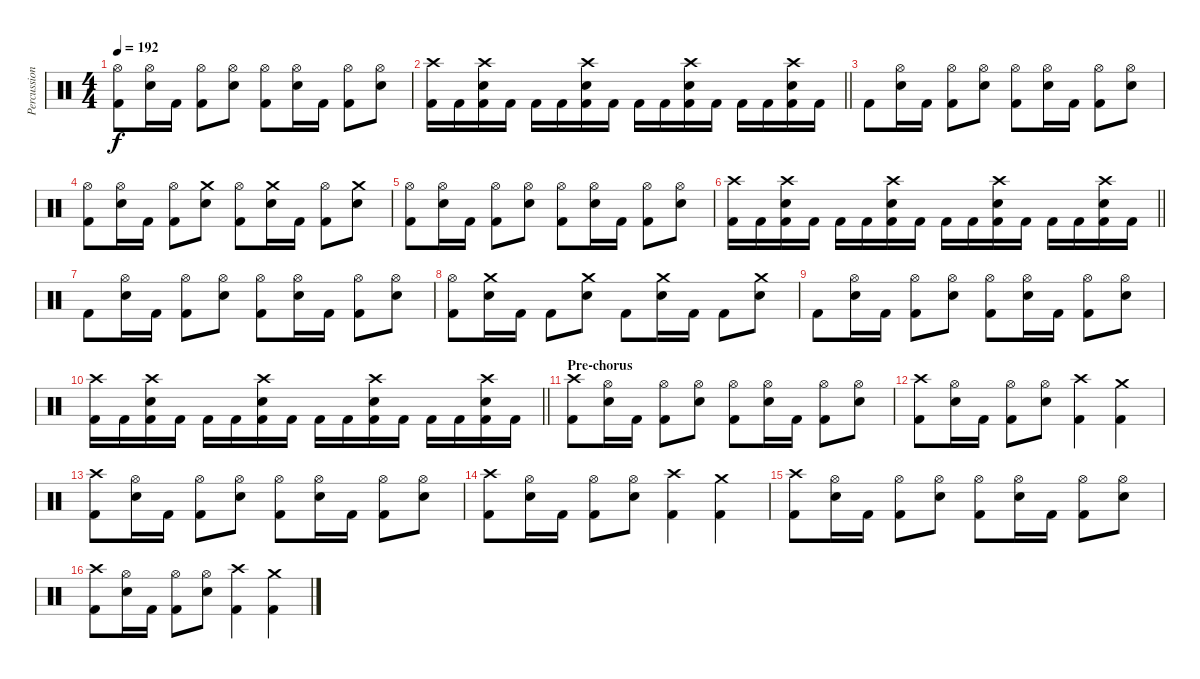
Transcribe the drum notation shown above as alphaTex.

\track ("Percussion" "Percussion") {instrument percussion}
\staff {score}
\articulation defaults
\ts (4 4)
\tempo 192
\clef neutral
\ks c
("Hi-Hat (open)" "Kick (hit) 2").8{dy f} ("Hi-Hat (open)" "Electric Snare (hit)").16 "Kick (hit) 2".16 ("Hi-Hat (open)" "Kick (hit) 2").8 ("Hi-Hat (open)" "Electric Snare (hit)").8 ("Hi-Hat (open)" "Kick (hit) 2").8 ("Hi-Hat (open)" "Electric Snare (hit)").16 "Kick (hit) 2".16 ("Hi-Hat (open)" "Kick (hit) 2").8 ("Hi-Hat (open)" "Electric Snare (hit)").8 |
\barLineRight lightlight
("Crash high (hit)" "Kick (hit) 2").16 "Kick (hit) 2".16 ("Crash high (hit)" "Electric Snare (hit)" "Kick (hit) 2").16 "Kick (hit) 2".16 "Kick (hit) 2".16 "Kick (hit) 2".16 ("Crash high (hit)" "Electric Snare (hit)" "Kick (hit) 2").16 "Kick (hit) 2".16 "Kick (hit) 2".16 "Kick (hit) 2".16 ("Crash high (hit)" "Electric Snare (hit)" "Kick (hit) 2").16 "Kick (hit) 2".16 "Kick (hit) 2".16 "Kick (hit) 2".16 ("Crash high (hit)" "Electric Snare (hit)" "Kick (hit) 2").16 "Kick (hit) 2".16 |
"Kick (hit) 2".8 ("Hi-Hat (open)" "Electric Snare (hit)").16 "Kick (hit) 2".16 ("Hi-Hat (open)" "Kick (hit) 2").8 ("Hi-Hat (open)" "Electric Snare (hit)").8 ("Hi-Hat (open)" "Kick (hit) 2").8 ("Hi-Hat (open)" "Electric Snare (hit)").16 "Kick (hit) 2".16 ("Hi-Hat (open)" "Kick (hit) 2").8 ("Hi-Hat (open)" "Electric Snare (hit)").8 |
("Hi-Hat (open)" "Kick (hit) 2").8 ("Hi-Hat (open)" "Electric Snare (hit)").16 "Kick (hit) 2".16 ("Hi-Hat (open)" "Kick (hit) 2").8 ("Crash medium (hit)" "Electric Snare (hit)").8 ("Hi-Hat (open)" "Kick (hit) 2").8 ("Crash medium (hit)" "Electric Snare (hit)").16 "Kick (hit) 2".16 ("Hi-Hat (open)" "Kick (hit) 2").8 ("Crash medium (hit)" "Electric Snare (hit)").8 |
("Hi-Hat (open)" "Kick (hit) 2").8 ("Hi-Hat (open)" "Electric Snare (hit)").16 "Kick (hit) 2".16 ("Hi-Hat (open)" "Kick (hit) 2").8 ("Hi-Hat (open)" "Electric Snare (hit)").8 ("Hi-Hat (open)" "Kick (hit) 2").8 ("Hi-Hat (open)" "Electric Snare (hit)").16 "Kick (hit) 2".16 ("Hi-Hat (open)" "Kick (hit) 2").8 ("Hi-Hat (open)" "Electric Snare (hit)").8 |
\barLineRight lightlight
("Crash high (hit)" "Kick (hit) 2").16 "Kick (hit) 2".16 ("Crash high (hit)" "Electric Snare (hit)" "Kick (hit) 2").16 "Kick (hit) 2".16 "Kick (hit) 2".16 "Kick (hit) 2".16 ("Crash high (hit)" "Electric Snare (hit)" "Kick (hit) 2").16 "Kick (hit) 2".16 "Kick (hit) 2".16 "Kick (hit) 2".16 ("Crash high (hit)" "Electric Snare (hit)" "Kick (hit) 2").16 "Kick (hit) 2".16 "Kick (hit) 2".16 "Kick (hit) 2".16 ("Crash high (hit)" "Electric Snare (hit)" "Kick (hit) 2").16 "Kick (hit) 2".16 |
"Kick (hit) 2".8 ("Hi-Hat (open)" "Electric Snare (hit)").16 "Kick (hit) 2".16 ("Hi-Hat (open)" "Kick (hit) 2").8 ("Hi-Hat (open)" "Electric Snare (hit)").8 ("Hi-Hat (open)" "Kick (hit) 2").8 ("Hi-Hat (open)" "Electric Snare (hit)").16 "Kick (hit) 2".16 ("Hi-Hat (open)" "Kick (hit) 2").8 ("Hi-Hat (open)" "Electric Snare (hit)").8 |
("Hi-Hat (open)" "Kick (hit) 2").8 ("Crash medium (hit)" "Electric Snare (hit)").16 "Kick (hit) 2".16 "Kick (hit) 2".8 ("Crash medium (hit)" "Electric Snare (hit)").8 "Kick (hit) 2".8 ("Crash medium (hit)" "Electric Snare (hit)").16 "Kick (hit) 2".16 "Kick (hit) 2".8 ("Crash medium (hit)" "Electric Snare (hit)").8 |
"Kick (hit) 2".8 ("Hi-Hat (open)" "Electric Snare (hit)").16 "Kick (hit) 2".16 ("Hi-Hat (open)" "Kick (hit) 2").8 ("Hi-Hat (open)" "Electric Snare (hit)").8 ("Hi-Hat (open)" "Kick (hit) 2").8 ("Hi-Hat (open)" "Electric Snare (hit)").16 "Kick (hit) 2".16 ("Hi-Hat (open)" "Kick (hit) 2").8 ("Hi-Hat (open)" "Electric Snare (hit)").8 |
\barLineRight lightlight
("Crash high (hit)" "Kick (hit) 2").16 "Kick (hit) 2".16 ("Crash high (hit)" "Electric Snare (hit)" "Kick (hit) 2").16 "Kick (hit) 2".16 "Kick (hit) 2".16 "Kick (hit) 2".16 ("Crash high (hit)" "Electric Snare (hit)" "Kick (hit) 2").16 "Kick (hit) 2".16 "Kick (hit) 2".16 "Kick (hit) 2".16 ("Crash high (hit)" "Electric Snare (hit)" "Kick (hit) 2").16 "Kick (hit) 2".16 "Kick (hit) 2".16 "Kick (hit) 2".16 ("Crash high (hit)" "Electric Snare (hit)" "Kick (hit) 2").16 "Kick (hit) 2".16 |
\section ("" "Pre-chorus")
("Crash high (hit)" "Kick (hit) 2").8 ("Hi-Hat (open)" "Electric Snare (hit)").16 "Kick (hit) 2".16 ("Hi-Hat (open)" "Kick (hit) 2").8 ("Hi-Hat (open)" "Electric Snare (hit)").8 ("Hi-Hat (open)" "Kick (hit) 2").8 ("Hi-Hat (open)" "Electric Snare (hit)").16 "Kick (hit) 2".16 ("Hi-Hat (open)" "Kick (hit) 2").8 ("Hi-Hat (open)" "Electric Snare (hit)").8 |
("Crash high (hit)" "Kick (hit) 2").8 ("Hi-Hat (open)" "Electric Snare (hit)").16 "Kick (hit) 2".16 ("Hi-Hat (open)" "Kick (hit) 2").8 ("Hi-Hat (open)" "Electric Snare (hit)").8 ("Crash high (hit)" "Kick (hit) 2").4 ("Crash medium (hit)" "Kick (hit) 2").4 |
("Crash high (hit)" "Kick (hit) 2").8 ("Hi-Hat (open)" "Electric Snare (hit)").16 "Kick (hit) 2".16 ("Hi-Hat (open)" "Kick (hit) 2").8 ("Hi-Hat (open)" "Electric Snare (hit)").8 ("Hi-Hat (open)" "Kick (hit) 2").8 ("Hi-Hat (open)" "Electric Snare (hit)").16 "Kick (hit) 2".16 ("Hi-Hat (open)" "Kick (hit) 2").8 ("Hi-Hat (open)" "Electric Snare (hit)").8 |
("Crash high (hit)" "Kick (hit) 2").8 ("Hi-Hat (open)" "Electric Snare (hit)").16 "Kick (hit) 2".16 ("Hi-Hat (open)" "Kick (hit) 2").8 ("Hi-Hat (open)" "Electric Snare (hit)").8 ("Crash high (hit)" "Kick (hit) 2").4 ("Crash medium (hit)" "Kick (hit) 2").4 |
("Crash high (hit)" "Kick (hit) 2").8 ("Hi-Hat (open)" "Electric Snare (hit)").16 "Kick (hit) 2".16 ("Hi-Hat (open)" "Kick (hit) 2").8 ("Hi-Hat (open)" "Electric Snare (hit)").8 ("Hi-Hat (open)" "Kick (hit) 2").8 ("Hi-Hat (open)" "Electric Snare (hit)").16 "Kick (hit) 2".16 ("Hi-Hat (open)" "Kick (hit) 2").8 ("Hi-Hat (open)" "Electric Snare (hit)").8 |
("Crash high (hit)" "Kick (hit) 2").8 ("Hi-Hat (open)" "Electric Snare (hit)").16 "Kick (hit) 2".16 ("Hi-Hat (open)" "Kick (hit) 2").8 ("Hi-Hat (open)" "Electric Snare (hit)").8 ("Crash high (hit)" "Kick (hit) 2").4 ("Crash medium (hit)" "Kick (hit) 2").4
